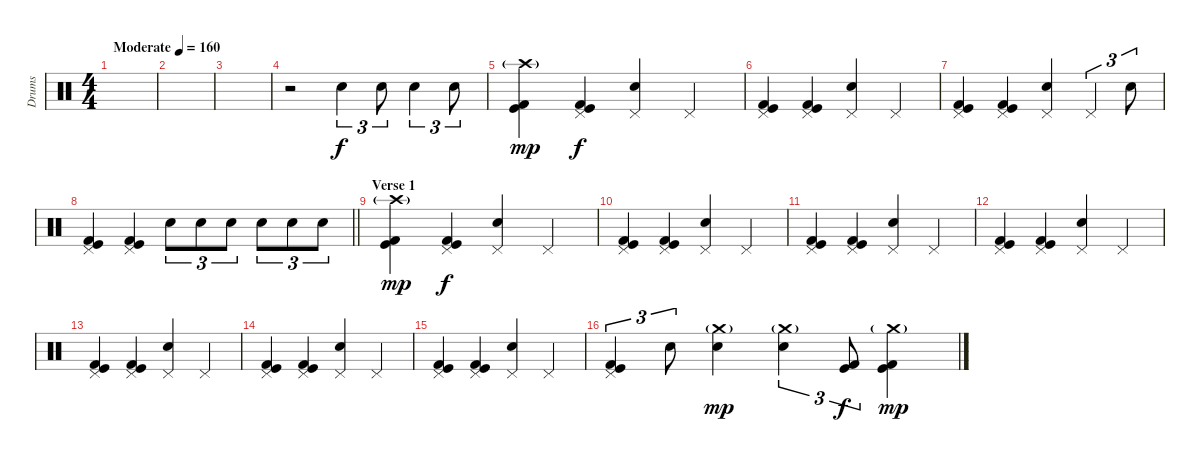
\track ("Drums" "Drums") {instrument percussion}
\staff {score}
\articulation defaults
\ts (4 4)
\tempo (160 "Moderate")
\clef neutral
\ks c
|
|
|
r.2 "Electric Snare (hit)".4{tu (3 2)} "Electric Snare (hit)".8{tu (3 2)} "Electric Snare (hit)".4{tu (3 2)} "Electric Snare (hit)".8{tu (3 2)} |
("Crash high (hit)"{g} "Kick (hit)" "Kick (hit) 2").4{dy mp} ("Pedal Hi-Hat (hit)" "Kick (hit)" "Kick (hit) 2").4{dy f} ("Pedal Hi-Hat (hit)" "Electric Snare (hit)").4 "Pedal Hi-Hat (hit)".4 |
("Pedal Hi-Hat (hit)" "Kick (hit)" "Kick (hit) 2").4 ("Pedal Hi-Hat (hit)" "Kick (hit)" "Kick (hit) 2").4 ("Pedal Hi-Hat (hit)" "Electric Snare (hit)").4 "Pedal Hi-Hat (hit)".4 |
("Pedal Hi-Hat (hit)" "Kick (hit)" "Kick (hit) 2").4 ("Pedal Hi-Hat (hit)" "Kick (hit)" "Kick (hit) 2").4 ("Pedal Hi-Hat (hit)" "Electric Snare (hit)").4 "Pedal Hi-Hat (hit)".4{tu (3 2)} "Electric Snare (hit)".8{tu (3 2)} |
\barLineRight lightlight
("Pedal Hi-Hat (hit)" "Kick (hit)" "Kick (hit) 2").4 ("Pedal Hi-Hat (hit)" "Kick (hit)" "Kick (hit) 2").4 "Electric Snare (hit)".8{tu (3 2)} "Electric Snare (hit)".8{tu (3 2)} "Electric Snare (hit)".8{tu (3 2)} "Electric Snare (hit)".8{tu (3 2)} "Electric Snare (hit)".8{tu (3 2)} "Electric Snare (hit)".8{tu (3 2)} |
\section ("" "Verse 1")
("Crash high (hit)"{g} "Kick (hit)" "Kick (hit) 2").4{dy mp} ("Pedal Hi-Hat (hit)" "Kick (hit)" "Kick (hit) 2").4{dy f} ("Pedal Hi-Hat (hit)" "Electric Snare (hit)").4 "Pedal Hi-Hat (hit)".4 |
("Pedal Hi-Hat (hit)" "Kick (hit)" "Kick (hit) 2").4 ("Pedal Hi-Hat (hit)" "Kick (hit)" "Kick (hit) 2").4 ("Pedal Hi-Hat (hit)" "Electric Snare (hit)").4 "Pedal Hi-Hat (hit)".4 |
("Pedal Hi-Hat (hit)" "Kick (hit)" "Kick (hit) 2").4 ("Pedal Hi-Hat (hit)" "Kick (hit)" "Kick (hit) 2").4 ("Pedal Hi-Hat (hit)" "Electric Snare (hit)").4 "Pedal Hi-Hat (hit)".4 |
("Pedal Hi-Hat (hit)" "Kick (hit)" "Kick (hit) 2").4 ("Pedal Hi-Hat (hit)" "Kick (hit)" "Kick (hit) 2").4 ("Pedal Hi-Hat (hit)" "Electric Snare (hit)").4 "Pedal Hi-Hat (hit)".4 |
("Pedal Hi-Hat (hit)" "Kick (hit)" "Kick (hit) 2").4 ("Pedal Hi-Hat (hit)" "Kick (hit)" "Kick (hit) 2").4 ("Pedal Hi-Hat (hit)" "Electric Snare (hit)").4 "Pedal Hi-Hat (hit)".4 |
("Pedal Hi-Hat (hit)" "Kick (hit)" "Kick (hit) 2").4 ("Pedal Hi-Hat (hit)" "Kick (hit)" "Kick (hit) 2").4 ("Pedal Hi-Hat (hit)" "Electric Snare (hit)").4 "Pedal Hi-Hat (hit)".4 |
("Pedal Hi-Hat (hit)" "Kick (hit)" "Kick (hit) 2").4 ("Pedal Hi-Hat (hit)" "Kick (hit)" "Kick (hit) 2").4 ("Pedal Hi-Hat (hit)" "Electric Snare (hit)").4 "Pedal Hi-Hat (hit)".4 |
("Pedal Hi-Hat (hit)" "Kick (hit)" "Kick (hit) 2").4{tu (3 2)} "Electric Snare (hit)".8{tu (3 2)} ("Crash medium (hit)"{g} "Electric Snare (hit)").4{dy mp} ("Crash medium (hit)"{g} "Electric Snare (hit)").4{tu (3 2)} ("Kick (hit)" "Kick (hit) 2").8{tu (3 2) dy f} ("Crash medium (hit)"{g} "Kick (hit)" "Kick (hit) 2").4{dy mp}
